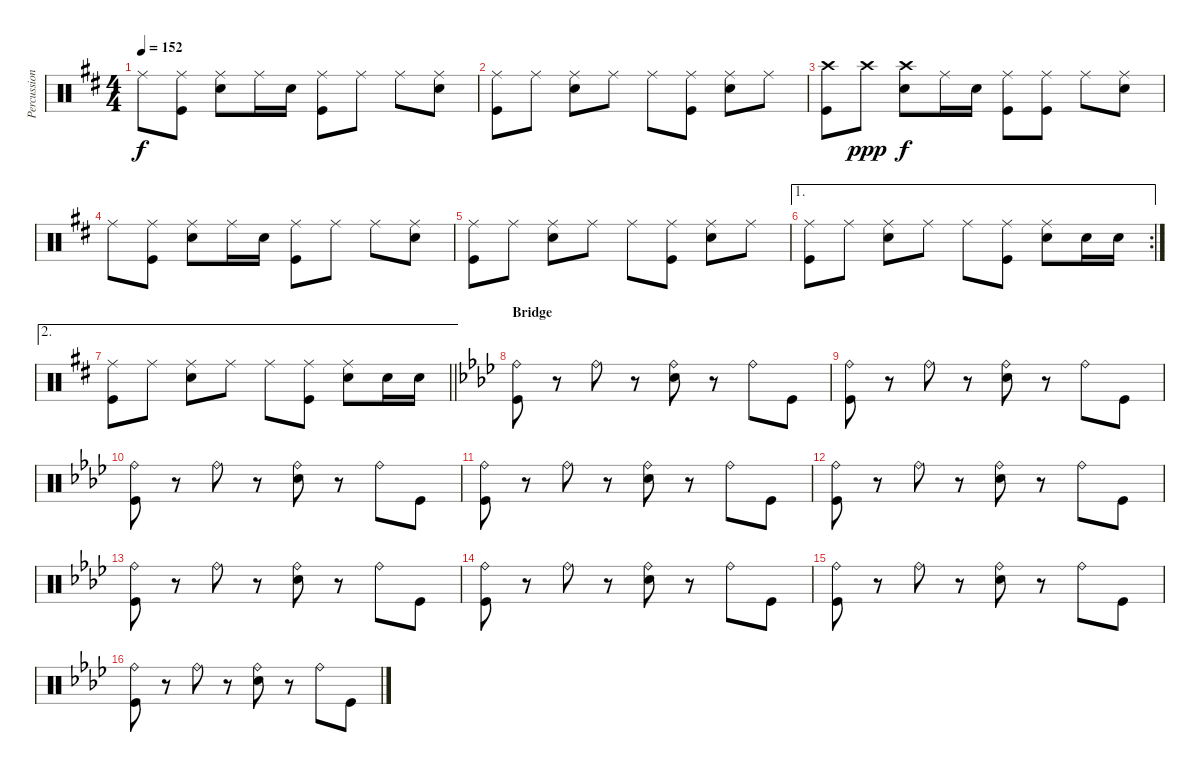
\track ("Percussion" "Percussion") {instrument percussion}
\staff {score}
\articulation defaults
\ts (4 4)
\tempo 152
\clef neutral
\ks d "Ride (middle)".8{dy f}
("Ride (middle)" "Kick (hit)").8 ("Ride (middle)" "Snare (hit) 2").8 "Ride (middle)".16 "Snare (hit) 2".16 ("Ride (middle)" "Kick (hit)").8 "Ride (middle)".8 "Ride (middle)".8 ("Ride (middle)" "Snare (hit) 2").8 |
("Ride (middle)" "Kick (hit)").8 "Ride (middle)".8 ("Ride (middle)" "Snare (hit) 2").8 "Ride (middle)".8 "Ride (middle)".8 ("Ride (middle)" "Kick (hit)").8 ("Ride (middle)" "Snare (hit) 2").8 "Ride (middle)".8 |
("Crash high (hit)" "Kick (hit)").8 "Crash high (hit)".8{dy ppp} ("Crash high (hit)" "Snare (hit) 2").8{dy f} "Ride (middle)".16 "Snare (hit) 2".16 ("Ride (middle)" "Kick (hit)").8 ("Ride (middle)" "Kick (hit)").8 "Ride (middle)".8 ("Ride (middle)" "Snare (hit) 2").8 |
"Ride (middle)".8 ("Ride (middle)" "Kick (hit)").8 ("Ride (middle)" "Snare (hit) 2").8 "Ride (middle)".16 "Snare (hit) 2".16 ("Ride (middle)" "Kick (hit)").8 "Ride (middle)".8 "Ride (middle)".8 ("Ride (middle)" "Snare (hit) 2").8 |
("Ride (middle)" "Kick (hit)").8 "Ride (middle)".8 ("Ride (middle)" "Snare (hit) 2").8 "Ride (middle)".8 "Ride (middle)".8 ("Ride (middle)" "Kick (hit)").8 ("Ride (middle)" "Snare (hit) 2").8 "Ride (middle)".8 |
\ae 1
\rc 2
("Ride (middle)" "Kick (hit)").8 "Ride (middle)".8 ("Ride (middle)" "Snare (hit) 2").8 "Ride (middle)".8 "Ride (middle)".8 ("Ride (middle)" "Kick (hit)").8 ("Ride (middle)" "Snare (hit) 2").8 "Snare (hit) 2".16 "Snare (hit) 2".16 |
\ae 2
\barLineRight lightlight
("Ride (middle)" "Kick (hit)").8 "Ride (middle)".8 ("Ride (middle)" "Snare (hit) 2").8 "Ride (middle)".8 "Ride (middle)".8 ("Ride (middle)" "Kick (hit)").8 ("Ride (middle)" "Snare (hit) 2").8 "Snare (hit) 2".16 "Snare (hit) 2".16 |
\section ("" "Bridge")
\ks fminor
("Ride (bell)" "Kick (hit)").8 r.8 "Ride (bell)".8 r.8 ("Ride (bell)" "Snare (hit) 2").8 r.8 "Ride (bell)".8 "Kick (hit)".8 |
("Ride (bell)" "Kick (hit)").8 r.8 "Ride (bell)".8 r.8 ("Ride (bell)" "Snare (hit) 2").8 r.8 "Ride (bell)".8 "Kick (hit)".8 |
("Ride (bell)" "Kick (hit)").8 r.8 "Ride (bell)".8 r.8 ("Ride (bell)" "Snare (hit) 2").8 r.8 "Ride (bell)".8 "Kick (hit)".8 |
("Ride (bell)" "Kick (hit)").8 r.8 "Ride (bell)".8 r.8 ("Ride (bell)" "Snare (hit) 2").8 r.8 "Ride (bell)".8 "Kick (hit)".8 |
("Ride (bell)" "Kick (hit)").8 r.8 "Ride (bell)".8 r.8 ("Ride (bell)" "Snare (hit) 2").8 r.8 "Ride (bell)".8 "Kick (hit)".8 |
("Ride (bell)" "Kick (hit)").8 r.8 "Ride (bell)".8 r.8 ("Ride (bell)" "Snare (hit) 2").8 r.8 "Ride (bell)".8 "Kick (hit)".8 |
("Ride (bell)" "Kick (hit)").8 r.8 "Ride (bell)".8 r.8 ("Ride (bell)" "Snare (hit) 2").8 r.8 "Ride (bell)".8 "Kick (hit)".8 |
("Ride (bell)" "Kick (hit)").8 r.8 "Ride (bell)".8 r.8 ("Ride (bell)" "Snare (hit) 2").8 r.8 "Ride (bell)".8 "Kick (hit)".8 |
("Ride (bell)" "Kick (hit)").8 r.8 "Ride (bell)".8 r.8 ("Ride (bell)" "Snare (hit) 2").8 r.8 "Ride (bell)".8 "Kick (hit)".8
